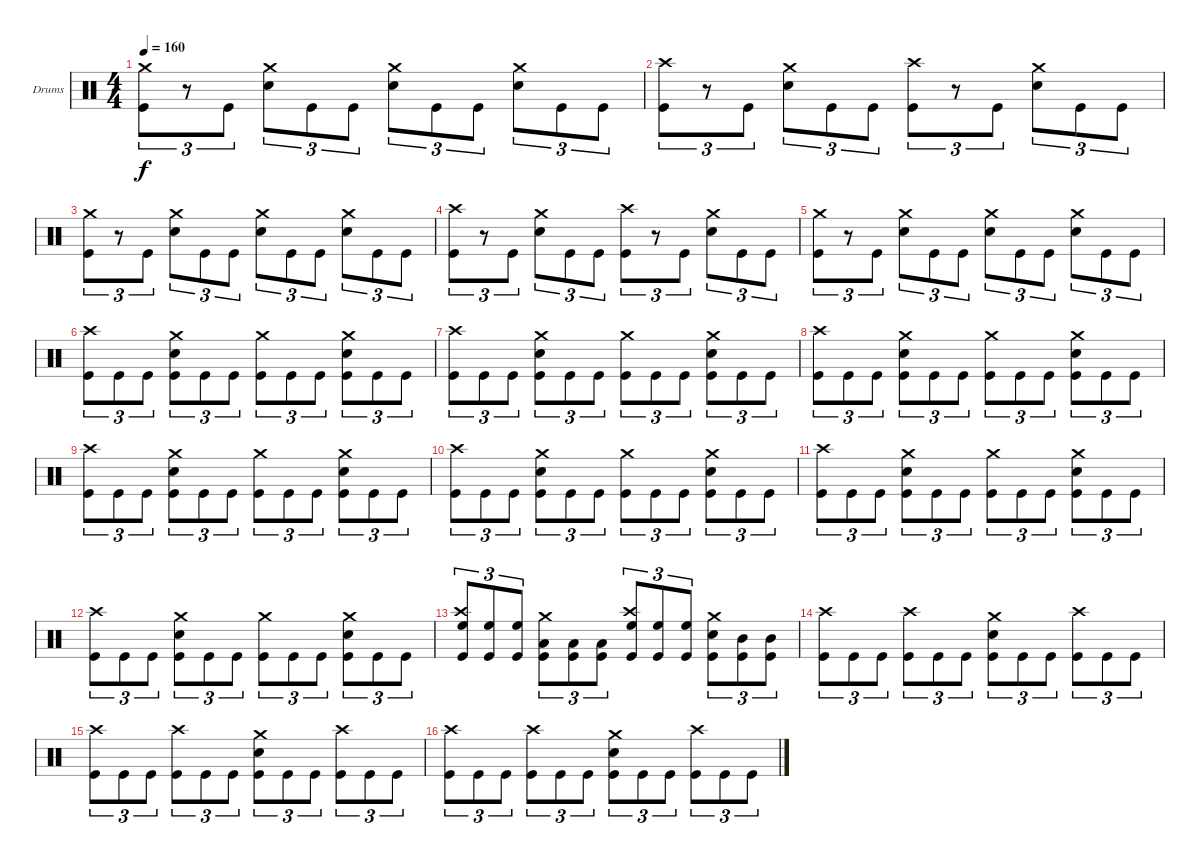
\defaultSystemsLayout 4
\bracketExtendMode groupsimilarinstruments
\firstSystemTrackNameOrientation horizontal
\otherSystemsTrackNameOrientation horizontal
\track ("Drumkit" "Drums") {instrument percussion}
\staff {score}
\articulation defaults
\ts (4 4)
\tempo 160
\clef neutral
\ks c
("Crash medium (hit)" "Kick (hit)").8{tu (3 2) dy f} r.8{tu (3 2)} "Kick (hit)".8{tu (3 2)} ("Crash medium (hit)" "Snare (hit) 2").8{tu (3 2)} "Kick (hit)".8{tu (3 2)} "Kick (hit)".8{tu (3 2)} ("Crash medium (hit)" "Snare (hit) 2").8{tu (3 2)} "Kick (hit)".8{tu (3 2)} "Kick (hit)".8{tu (3 2)} ("Crash medium (hit)" "Snare (hit) 2").8{tu (3 2)} "Kick (hit)".8{tu (3 2)} "Kick (hit)".8{tu (3 2)} |
("Crash high (hit)" "Kick (hit)").8{tu (3 2)} r.8{tu (3 2)} "Kick (hit)".8{tu (3 2)} ("Crash medium (hit)" "Snare (hit) 2").8{tu (3 2)} "Kick (hit)".8{tu (3 2)} "Kick (hit)".8{tu (3 2)} ("Crash high (hit)" "Kick (hit)").8{tu (3 2)} r.8{tu (3 2)} "Kick (hit)".8{tu (3 2)} ("Crash medium (hit)" "Snare (hit) 2").8{tu (3 2)} "Kick (hit)".8{tu (3 2)} "Kick (hit)".8{tu (3 2)} |
("Crash medium (hit)" "Kick (hit)").8{tu (3 2)} r.8{tu (3 2)} "Kick (hit)".8{tu (3 2)} ("Crash medium (hit)" "Snare (hit) 2").8{tu (3 2)} "Kick (hit)".8{tu (3 2)} "Kick (hit)".8{tu (3 2)} ("Crash medium (hit)" "Snare (hit) 2").8{tu (3 2)} "Kick (hit)".8{tu (3 2)} "Kick (hit)".8{tu (3 2)} ("Crash medium (hit)" "Snare (hit) 2").8{tu (3 2)} "Kick (hit)".8{tu (3 2)} "Kick (hit)".8{tu (3 2)} |
("Crash high (hit)" "Kick (hit)").8{tu (3 2)} r.8{tu (3 2)} "Kick (hit)".8{tu (3 2)} ("Crash medium (hit)" "Snare (hit) 2").8{tu (3 2)} "Kick (hit)".8{tu (3 2)} "Kick (hit)".8{tu (3 2)} ("Crash high (hit)" "Kick (hit)").8{tu (3 2)} r.8{tu (3 2)} "Kick (hit)".8{tu (3 2)} ("Crash medium (hit)" "Snare (hit) 2").8{tu (3 2)} "Kick (hit)".8{tu (3 2)} "Kick (hit)".8{tu (3 2)} |
("Crash medium (hit)" "Kick (hit)").8{tu (3 2)} r.8{tu (3 2)} "Kick (hit)".8{tu (3 2)} ("Crash medium (hit)" "Snare (hit) 2").8{tu (3 2)} "Kick (hit)".8{tu (3 2)} "Kick (hit)".8{tu (3 2)} ("Crash medium (hit)" "Snare (hit) 2").8{tu (3 2)} "Kick (hit)".8{tu (3 2)} "Kick (hit)".8{tu (3 2)} ("Crash medium (hit)" "Snare (hit) 2").8{tu (3 2)} "Kick (hit)".8{tu (3 2)} "Kick (hit)".8{tu (3 2)} |
("Crash high (hit)" "Kick (hit)").8{tu (3 2)} "Kick (hit)".8{tu (3 2)} "Kick (hit)".8{tu (3 2)} ("Crash medium (hit)" "Snare (hit) 2" "Kick (hit)").8{tu (3 2)} "Kick (hit)".8{tu (3 2)} "Kick (hit)".8{tu (3 2)} ("Crash medium (hit)" "Kick (hit)").8{tu (3 2)} "Kick (hit)".8{tu (3 2)} "Kick (hit)".8{tu (3 2)} ("Crash medium (hit)" "Snare (hit) 2" "Kick (hit)").8{tu (3 2)} "Kick (hit)".8{tu (3 2)} "Kick (hit)".8{tu (3 2)} |
("Crash high (hit)" "Kick (hit)").8{tu (3 2)} "Kick (hit)".8{tu (3 2)} "Kick (hit)".8{tu (3 2)} ("Crash medium (hit)" "Snare (hit) 2" "Kick (hit)").8{tu (3 2)} "Kick (hit)".8{tu (3 2)} "Kick (hit)".8{tu (3 2)} ("Crash medium (hit)" "Kick (hit)").8{tu (3 2)} "Kick (hit)".8{tu (3 2)} "Kick (hit)".8{tu (3 2)} ("Crash medium (hit)" "Snare (hit) 2" "Kick (hit)").8{tu (3 2)} "Kick (hit)".8{tu (3 2)} "Kick (hit)".8{tu (3 2)} |
("Crash high (hit)" "Kick (hit)").8{tu (3 2)} "Kick (hit)".8{tu (3 2)} "Kick (hit)".8{tu (3 2)} ("Crash medium (hit)" "Snare (hit) 2" "Kick (hit)").8{tu (3 2)} "Kick (hit)".8{tu (3 2)} "Kick (hit)".8{tu (3 2)} ("Crash medium (hit)" "Kick (hit)").8{tu (3 2)} "Kick (hit)".8{tu (3 2)} "Kick (hit)".8{tu (3 2)} ("Crash medium (hit)" "Snare (hit) 2" "Kick (hit)").8{tu (3 2)} "Kick (hit)".8{tu (3 2)} "Kick (hit)".8{tu (3 2)} |
("Crash high (hit)" "Kick (hit)").8{tu (3 2)} "Kick (hit)".8{tu (3 2)} "Kick (hit)".8{tu (3 2)} ("Crash medium (hit)" "Snare (hit) 2" "Kick (hit)").8{tu (3 2)} "Kick (hit)".8{tu (3 2)} "Kick (hit)".8{tu (3 2)} ("Crash medium (hit)" "Kick (hit)").8{tu (3 2)} "Kick (hit)".8{tu (3 2)} "Kick (hit)".8{tu (3 2)} ("Crash medium (hit)" "Snare (hit) 2" "Kick (hit)").8{tu (3 2)} "Kick (hit)".8{tu (3 2)} "Kick (hit)".8{tu (3 2)} |
("Crash high (hit)" "Kick (hit)").8{tu (3 2)} "Kick (hit)".8{tu (3 2)} "Kick (hit)".8{tu (3 2)} ("Crash medium (hit)" "Snare (hit) 2" "Kick (hit)").8{tu (3 2)} "Kick (hit)".8{tu (3 2)} "Kick (hit)".8{tu (3 2)} ("Crash medium (hit)" "Kick (hit)").8{tu (3 2)} "Kick (hit)".8{tu (3 2)} "Kick (hit)".8{tu (3 2)} ("Crash medium (hit)" "Snare (hit) 2" "Kick (hit)").8{tu (3 2)} "Kick (hit)".8{tu (3 2)} "Kick (hit)".8{tu (3 2)} |
("Crash high (hit)" "Kick (hit)").8{tu (3 2)} "Kick (hit)".8{tu (3 2)} "Kick (hit)".8{tu (3 2)} ("Crash medium (hit)" "Snare (hit) 2" "Kick (hit)").8{tu (3 2)} "Kick (hit)".8{tu (3 2)} "Kick (hit)".8{tu (3 2)} ("Crash medium (hit)" "Kick (hit)").8{tu (3 2)} "Kick (hit)".8{tu (3 2)} "Kick (hit)".8{tu (3 2)} ("Crash medium (hit)" "Snare (hit) 2" "Kick (hit)").8{tu (3 2)} "Kick (hit)".8{tu (3 2)} "Kick (hit)".8{tu (3 2)} |
("Crash high (hit)" "Kick (hit)").8{tu (3 2)} "Kick (hit)".8{tu (3 2)} "Kick (hit)".8{tu (3 2)} ("Crash medium (hit)" "Snare (hit) 2" "Kick (hit)").8{tu (3 2)} "Kick (hit)".8{tu (3 2)} "Kick (hit)".8{tu (3 2)} ("Crash medium (hit)" "Kick (hit)").8{tu (3 2)} "Kick (hit)".8{tu (3 2)} "Kick (hit)".8{tu (3 2)} ("Crash medium (hit)" "Snare (hit) 2" "Kick (hit)").8{tu (3 2)} "Kick (hit)".8{tu (3 2)} "Kick (hit)".8{tu (3 2)} |
("Crash high (hit)" "Kick (hit)" "High Floor Tom (hit)").8{tu (3 2)} ("Kick (hit)" "High Floor Tom (hit)").8{tu (3 2)} ("Kick (hit)" "High Floor Tom (hit)").8{tu (3 2)} ("Crash medium (hit)" "Kick (hit)" "Low Tom (hit)").8{tu (3 2)} ("Kick (hit)" "Low Tom (hit)").8{tu (3 2)} ("Kick (hit)" "Low Tom (hit)").8{tu (3 2)} ("Crash high (hit)" "Kick (hit)" "High Floor Tom (hit)").8{tu (3 2)} ("Kick (hit)" "High Floor Tom (hit)").8{tu (3 2)} ("Kick (hit)" "High Floor Tom (hit)").8{tu (3 2)} ("Crash medium (hit)" "Snare (hit) 2" "Kick (hit)").8{tu (3 2)} ("Kick (hit)" "Mid Tom (hit)").8{tu (3 2)} ("Kick (hit)" "Mid Tom (hit)").8{tu (3 2)} |
("Crash high (hit)" "Kick (hit)").8{tu (3 2)} "Kick (hit)".8{tu (3 2)} "Kick (hit)".8{tu (3 2)} ("Crash high (hit)" "Kick (hit)").8{tu (3 2)} "Kick (hit)".8{tu (3 2)} "Kick (hit)".8{tu (3 2)} ("Crash medium (hit)" "Snare (hit) 2" "Kick (hit)").8{tu (3 2)} "Kick (hit)".8{tu (3 2)} "Kick (hit)".8{tu (3 2)} ("Crash high (hit)" "Kick (hit)").8{tu (3 2)} "Kick (hit)".8{tu (3 2)} "Kick (hit)".8{tu (3 2)} |
("Crash high (hit)" "Kick (hit)").8{tu (3 2)} "Kick (hit)".8{tu (3 2)} "Kick (hit)".8{tu (3 2)} ("Crash high (hit)" "Kick (hit)").8{tu (3 2)} "Kick (hit)".8{tu (3 2)} "Kick (hit)".8{tu (3 2)} ("Crash medium (hit)" "Snare (hit) 2" "Kick (hit)").8{tu (3 2)} "Kick (hit)".8{tu (3 2)} "Kick (hit)".8{tu (3 2)} ("Crash high (hit)" "Kick (hit)").8{tu (3 2)} "Kick (hit)".8{tu (3 2)} "Kick (hit)".8{tu (3 2)} |
("Crash high (hit)" "Kick (hit)").8{tu (3 2)} "Kick (hit)".8{tu (3 2)} "Kick (hit)".8{tu (3 2)} ("Crash high (hit)" "Kick (hit)").8{tu (3 2)} "Kick (hit)".8{tu (3 2)} "Kick (hit)".8{tu (3 2)} ("Crash medium (hit)" "Snare (hit) 2" "Kick (hit)").8{tu (3 2)} "Kick (hit)".8{tu (3 2)} "Kick (hit)".8{tu (3 2)} ("Crash high (hit)" "Kick (hit)").8{tu (3 2)} "Kick (hit)".8{tu (3 2)} "Kick (hit)".8{tu (3 2)}
